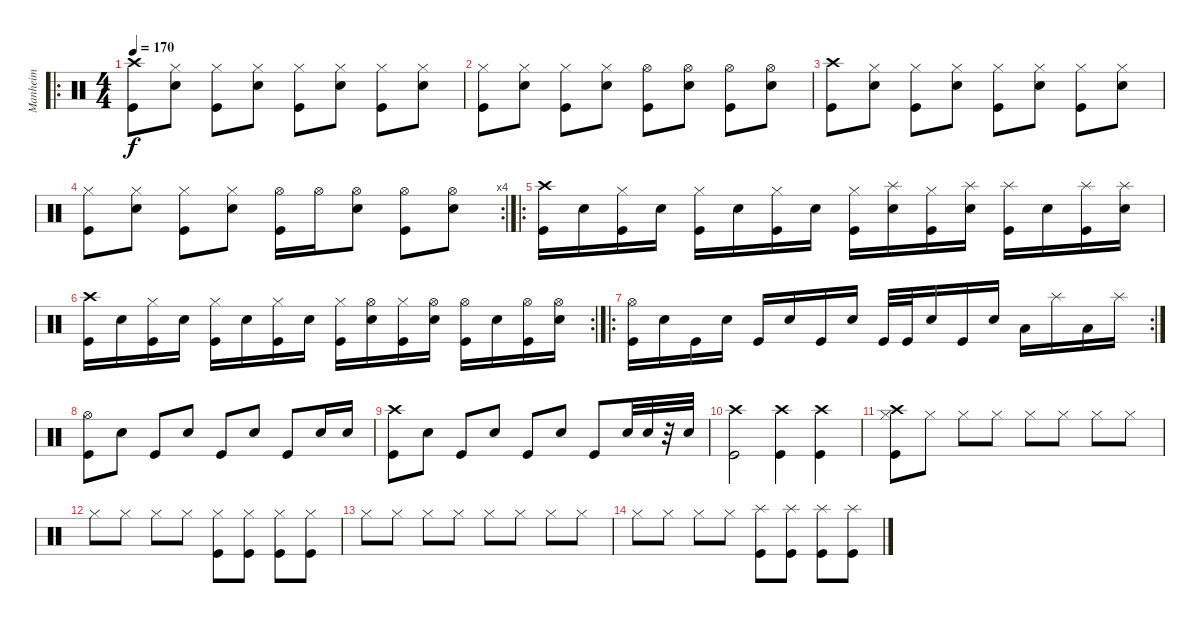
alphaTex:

\track ("Manheim" "Manheim") {instrument percussion}
\staff {score}
\articulation defaults
\ro
\ts (4 4)
\tempo 170
\clef neutral
\ks c
("Crash high (hit)" "Kick (hit)").8{dy f} ("Hi-Hat (closed)" "Electric Snare (hit)").8 ("Hi-Hat (closed)" "Kick (hit)").8 ("Hi-Hat (closed)" "Electric Snare (hit)").8 ("Hi-Hat (closed)" "Kick (hit)").8 ("Hi-Hat (closed)" "Electric Snare (hit)").8 ("Hi-Hat (closed)" "Kick (hit)").8 ("Hi-Hat (closed)" "Electric Snare (hit)").8 |
("Hi-Hat (closed)" "Kick (hit)").8 ("Hi-Hat (closed)" "Electric Snare (hit)").8 ("Hi-Hat (closed)" "Kick (hit)").8 ("Hi-Hat (closed)" "Electric Snare (hit)").8 ("Hi-Hat (open)" "Kick (hit)").8 ("Hi-Hat (open)" "Electric Snare (hit)").8 ("Hi-Hat (open)" "Kick (hit)").8 ("Hi-Hat (open)" "Electric Snare (hit)").8 |
("Crash high (hit)" "Kick (hit)").8 ("Hi-Hat (closed)" "Electric Snare (hit)").8 ("Hi-Hat (closed)" "Kick (hit)").8 ("Hi-Hat (closed)" "Electric Snare (hit)").8 ("Hi-Hat (closed)" "Kick (hit)").8 ("Hi-Hat (closed)" "Electric Snare (hit)").8 ("Hi-Hat (closed)" "Kick (hit)").8 ("Hi-Hat (closed)" "Electric Snare (hit)").8 |
\rc 4
("Hi-Hat (closed)" "Kick (hit)").8 ("Hi-Hat (closed)" "Electric Snare (hit)").8 ("Hi-Hat (closed)" "Kick (hit)").8 ("Hi-Hat (closed)" "Electric Snare (hit)").8 ("Hi-Hat (open)" "Kick (hit)").16 "Hi-Hat (open)".16 ("Hi-Hat (open)" "Electric Snare (hit)").8 ("Hi-Hat (open)" "Kick (hit)").8 ("Hi-Hat (open)" "Electric Snare (hit)").8 |
\ro
("Crash high (hit)" "Kick (hit)").16 "Electric Snare (hit)".16 ("Hi-Hat (closed)" "Kick (hit)").16 "Electric Snare (hit)".16 ("Hi-Hat (closed)" "Kick (hit)").16 "Electric Snare (hit)".16 ("Hi-Hat (closed)" "Kick (hit)").16 "Electric Snare (hit)".16 ("Hi-Hat (closed)" "Kick (hit)").16 ("Splash (hit)" "Electric Snare (hit)").16 ("Hi-Hat (closed)" "Kick (hit)").16 ("Splash (hit)" "Electric Snare (hit)").16 ("Splash (hit)" "Kick (hit)").16 "Electric Snare (hit)".16 ("Splash (hit)" "Kick (hit)").16 ("Splash (hit)" "Electric Snare (hit)").16 |
\rc 2
("Crash high (hit)" "Kick (hit)").16 "Electric Snare (hit)".16 ("Hi-Hat (closed)" "Kick (hit)").16 "Electric Snare (hit)".16 ("Hi-Hat (closed)" "Kick (hit)").16 "Electric Snare (hit)".16 ("Hi-Hat (closed)" "Kick (hit)").16 "Electric Snare (hit)".16 ("Hi-Hat (closed)" "Kick (hit)").16 ("Hi-Hat (open)" "Electric Snare (hit)").16 ("Hi-Hat (closed)" "Kick (hit)").16 ("Hi-Hat (open)" "Electric Snare (hit)").16 ("Hi-Hat (open)" "Kick (hit)").16 "Electric Snare (hit)".16 ("Hi-Hat (open)" "Kick (hit)").16 ("Hi-Hat (open)" "Electric Snare (hit)").16 |
\ro
\rc 2
("Hi-Hat (open)" "Kick (hit)").16 "Electric Snare (hit)".16 "Kick (hit)".16 "Electric Snare (hit)".16 "Kick (hit)".16 "Electric Snare (hit)".16 "Kick (hit)".16 "Electric Snare (hit)".16 "Kick (hit)".32 "Kick (hit)".32 "Electric Snare (hit)".16 "Kick (hit)".16 "Electric Snare (hit)".16 "Low Floor Tom (hit)".16 "Splash (hit)".16 "Low Floor Tom (hit)".16 "Splash (hit)".16 |
("Hi-Hat (open)" "Kick (hit)").8 "Electric Snare (hit)".8 "Kick (hit)".8 "Electric Snare (hit)".8 "Kick (hit)".8 "Electric Snare (hit)".8 "Kick (hit)".8 "Electric Snare (hit)".16 "Electric Snare (hit)".16 |
("Crash high (hit)" "Kick (hit)").8 "Electric Snare (hit)".8 "Kick (hit)".8 "Electric Snare (hit)".8 "Kick (hit)".8 "Electric Snare (hit)".8 "Kick (hit)".8 "Electric Snare (hit)".32 "Electric Snare (hit)".32 r.32 "Electric Snare (hit)".32 |
("Crash high (hit)" "Kick (hit)").2 ("Crash high (hit)" "Kick (hit)").4 ("Crash high (hit)" "Kick (hit)").4 |
("Crash high (hit)" "Hi-Hat (closed)" "Kick (hit)").8 "Hi-Hat (closed)".8 "Hi-Hat (closed)".8 "Hi-Hat (closed)".8 "Hi-Hat (closed)".8 "Hi-Hat (closed)".8 "Hi-Hat (closed)".8 "Hi-Hat (closed)".8 |
"Hi-Hat (closed)".8 "Hi-Hat (closed)".8 "Hi-Hat (closed)".8 "Hi-Hat (closed)".8 ("Hi-Hat (closed)" "Kick (hit)").8 ("Hi-Hat (closed)" "Kick (hit)").8 ("Hi-Hat (closed)" "Kick (hit)").8 ("Hi-Hat (closed)" "Kick (hit)").8 |
"Hi-Hat (closed)".8 "Hi-Hat (closed)".8 "Hi-Hat (closed)".8 "Hi-Hat (closed)".8 "Hi-Hat (closed)".8 "Hi-Hat (closed)".8 "Hi-Hat (closed)".8 "Hi-Hat (closed)".8 |
"Hi-Hat (closed)".8 "Hi-Hat (closed)".8 "Hi-Hat (closed)".8 "Hi-Hat (closed)".8 ("Splash (hit)" "Kick (hit)").8 ("Splash (hit)" "Kick (hit)").8 ("Splash (hit)" "Kick (hit)").8 ("Splash (hit)" "Kick (hit)").8
